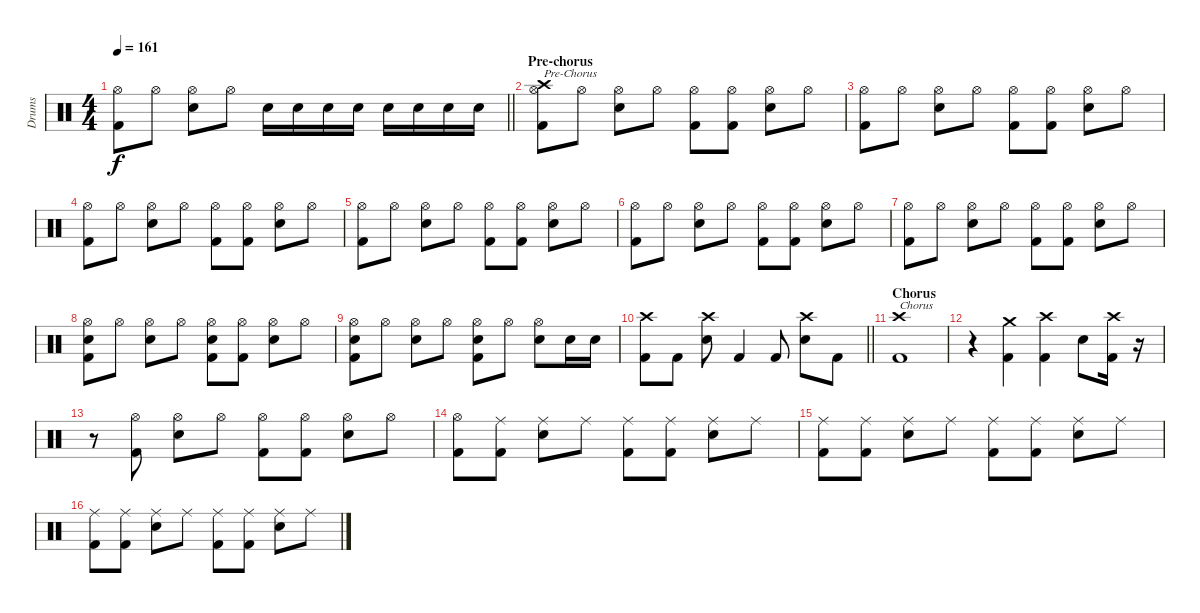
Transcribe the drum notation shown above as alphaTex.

\track ("Drums" "Drums") {instrument percussion}
\staff {score}
\articulation defaults
\ts (4 4)
\tempo 161
\clef neutral
\barLineRight lightlight
\ks c
("Hi-Hat (open)" "Kick (hit) 2").8{dy f} "Hi-Hat (open)".8 ("Hi-Hat (open)" "Electric Snare (hit)").8 "Hi-Hat (open)".8 "Electric Snare (hit)".16 "Electric Snare (hit)".16 "Electric Snare (hit)".16 "Electric Snare (hit)".16 "Electric Snare (hit)".16 "Electric Snare (hit)".16 "Electric Snare (hit)".16 "Electric Snare (hit)".16 |
\section ("" "Pre-chorus")
("Crash high (hit)" "Hi-Hat (open)" "Kick (hit) 2").8{txt "Pre-Chorus"} "Hi-Hat (open)".8 ("Hi-Hat (open)" "Electric Snare (hit)").8 "Hi-Hat (open)".8 ("Hi-Hat (open)" "Kick (hit) 2").8 ("Hi-Hat (open)" "Kick (hit) 2").8 ("Hi-Hat (open)" "Electric Snare (hit)").8 "Hi-Hat (open)".8 |
("Hi-Hat (open)" "Kick (hit) 2").8 "Hi-Hat (open)".8 ("Hi-Hat (open)" "Electric Snare (hit)").8 "Hi-Hat (open)".8 ("Hi-Hat (open)" "Kick (hit) 2").8 ("Hi-Hat (open)" "Kick (hit) 2").8 ("Hi-Hat (open)" "Electric Snare (hit)").8 "Hi-Hat (open)".8 |
("Hi-Hat (open)" "Kick (hit) 2").8 "Hi-Hat (open)".8 ("Hi-Hat (open)" "Electric Snare (hit)").8 "Hi-Hat (open)".8 ("Hi-Hat (open)" "Kick (hit) 2").8 ("Hi-Hat (open)" "Kick (hit) 2").8 ("Hi-Hat (open)" "Electric Snare (hit)").8 "Hi-Hat (open)".8 |
("Hi-Hat (open)" "Kick (hit) 2").8 "Hi-Hat (open)".8 ("Hi-Hat (open)" "Electric Snare (hit)").8 "Hi-Hat (open)".8 ("Hi-Hat (open)" "Kick (hit) 2").8 ("Hi-Hat (open)" "Kick (hit) 2").8 ("Hi-Hat (open)" "Electric Snare (hit)").8 "Hi-Hat (open)".8 |
("Hi-Hat (open)" "Kick (hit) 2").8 "Hi-Hat (open)".8 ("Hi-Hat (open)" "Electric Snare (hit)").8 "Hi-Hat (open)".8 ("Hi-Hat (open)" "Kick (hit) 2").8 ("Hi-Hat (open)" "Kick (hit) 2").8 ("Hi-Hat (open)" "Electric Snare (hit)").8 "Hi-Hat (open)".8 |
("Hi-Hat (open)" "Kick (hit) 2").8 "Hi-Hat (open)".8 ("Hi-Hat (open)" "Electric Snare (hit)").8 "Hi-Hat (open)".8 ("Hi-Hat (open)" "Kick (hit) 2").8 ("Hi-Hat (open)" "Kick (hit) 2").8 ("Hi-Hat (open)" "Electric Snare (hit)").8 "Hi-Hat (open)".8 |
("Hi-Hat (open)" "Electric Snare (hit)" "Kick (hit) 2").8 "Hi-Hat (open)".8 ("Hi-Hat (open)" "Electric Snare (hit)").8 "Hi-Hat (open)".8 ("Hi-Hat (open)" "Electric Snare (hit)" "Kick (hit) 2").8 ("Hi-Hat (open)" "Kick (hit) 2").8 ("Hi-Hat (open)" "Electric Snare (hit)").8 "Hi-Hat (open)".8 |
("Hi-Hat (open)" "Electric Snare (hit)" "Kick (hit) 2").8 "Hi-Hat (open)".8 ("Hi-Hat (open)" "Electric Snare (hit)").8 "Hi-Hat (open)".8 ("Hi-Hat (open)" "Electric Snare (hit)" "Kick (hit) 2").8 "Hi-Hat (open)".8 ("Hi-Hat (open)" "Electric Snare (hit)").8 "Electric Snare (hit)".16 "Electric Snare (hit)".16 |
\barLineRight lightlight
("Crash high (hit)" "Kick (hit) 2").8 "Kick (hit) 2".8 ("Crash high (hit)" "Electric Snare (hit)").8 "Kick (hit) 2".4 "Kick (hit) 2".8 ("Crash high (hit)" "Electric Snare (hit)").8 "Kick (hit) 2".8 |
\section ("" "Chorus")
("Crash high (hit)" "Kick (hit) 2").1{txt "Chorus"} |
r.4 ("Crash medium (hit)" "Kick (hit) 2").4 ("Crash high (hit)" "Kick (hit) 2").4 "Electric Snare (hit)".8 ("Crash high (hit)" "Kick (hit) 2").16 r.16 |
r.8 ("Hi-Hat (open)" "Kick (hit) 2").8 ("Hi-Hat (open)" "Electric Snare (hit)").8 "Hi-Hat (open)".8 ("Hi-Hat (open)" "Kick (hit) 2").8 ("Hi-Hat (open)" "Kick (hit) 2").8 ("Hi-Hat (open)" "Electric Snare (hit)").8 "Hi-Hat (open)".8 |
("Hi-Hat (open)" "Kick (hit) 2").8 ("Ride (middle)" "Kick (hit) 2").8 ("Ride (middle)" "Electric Snare (hit)").8 "Ride (middle)".8 ("Ride (middle)" "Kick (hit) 2").8 ("Ride (middle)" "Kick (hit) 2").8 ("Ride (middle)" "Electric Snare (hit)").8 "Ride (middle)".8 |
("Ride (middle)" "Kick (hit) 2").8 ("Ride (middle)" "Kick (hit) 2").8 ("Ride (middle)" "Electric Snare (hit)").8 "Ride (middle)".8 ("Ride (middle)" "Kick (hit) 2").8 ("Ride (middle)" "Kick (hit) 2").8 ("Ride (middle)" "Electric Snare (hit)").8 "Ride (middle)".8 |
("Ride (middle)" "Kick (hit) 2").8 ("Ride (middle)" "Kick (hit) 2").8 ("Ride (middle)" "Electric Snare (hit)").8 "Ride (middle)".8 ("Ride (middle)" "Kick (hit) 2").8 ("Ride (middle)" "Kick (hit) 2").8 ("Ride (middle)" "Electric Snare (hit)").8 "Ride (middle)".8
